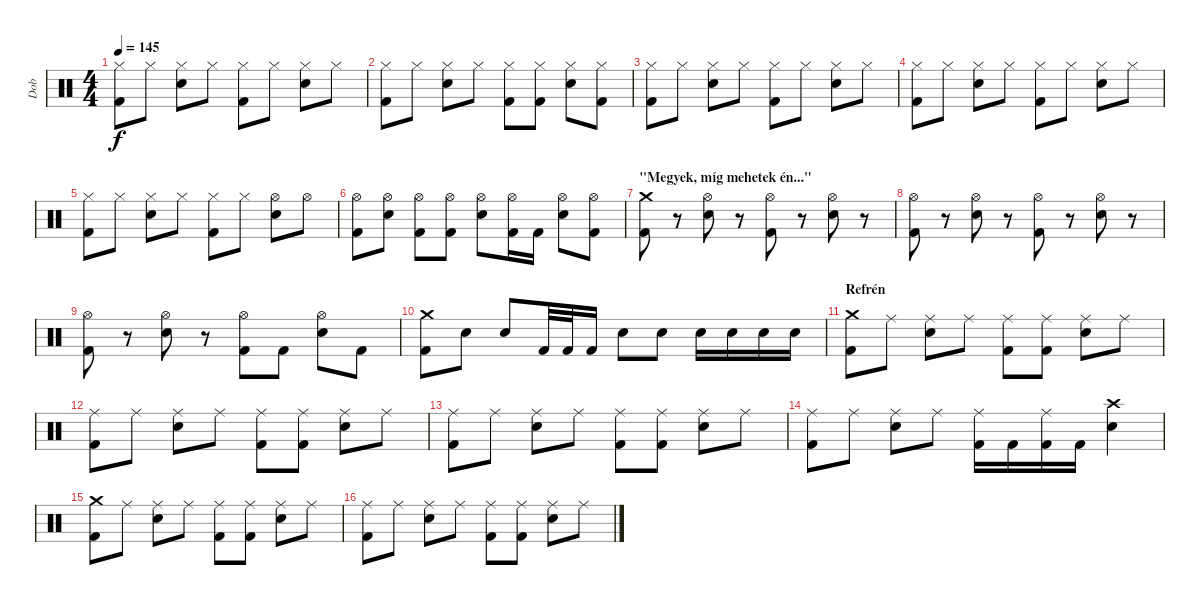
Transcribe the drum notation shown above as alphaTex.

\track ("Dob" "Dob") {instrument percussion}
\staff {score}
\articulation defaults
\ts (4 4)
\tempo 145
\clef neutral
\ks c
("Hi-Hat (closed)" "Kick (hit) 2").8{dy f} "Hi-Hat (closed)".8 ("Hi-Hat (closed)" "Electric Snare (hit)").8 "Hi-Hat (closed)".8 ("Hi-Hat (closed)" "Kick (hit) 2").8 "Hi-Hat (closed)".8 ("Hi-Hat (closed)" "Electric Snare (hit)").8 "Hi-Hat (closed)".8 |
("Hi-Hat (closed)" "Kick (hit) 2").8 "Hi-Hat (closed)".8 ("Hi-Hat (closed)" "Electric Snare (hit)").8 "Hi-Hat (closed)".8 ("Hi-Hat (closed)" "Kick (hit) 2").8 ("Hi-Hat (closed)" "Kick (hit) 2").8 ("Hi-Hat (closed)" "Electric Snare (hit)").8 ("Hi-Hat (closed)" "Kick (hit) 2").8 |
("Hi-Hat (closed)" "Kick (hit) 2").8 "Hi-Hat (closed)".8 ("Hi-Hat (closed)" "Electric Snare (hit)").8 "Hi-Hat (closed)".8 ("Hi-Hat (closed)" "Kick (hit) 2").8 "Hi-Hat (closed)".8 ("Hi-Hat (closed)" "Electric Snare (hit)").8 "Hi-Hat (closed)".8 |
("Hi-Hat (closed)" "Kick (hit) 2").8 "Hi-Hat (closed)".8 ("Hi-Hat (closed)" "Electric Snare (hit)").8 "Hi-Hat (closed)".8 ("Hi-Hat (closed)" "Kick (hit) 2").8 "Hi-Hat (closed)".8 ("Hi-Hat (closed)" "Electric Snare (hit)").8 "Hi-Hat (closed)".8 |
("Hi-Hat (closed)" "Kick (hit) 2").8 "Hi-Hat (closed)".8 ("Hi-Hat (closed)" "Electric Snare (hit)").8 "Hi-Hat (closed)".8 ("Hi-Hat (closed)" "Kick (hit) 2").8 "Hi-Hat (closed)".8 ("Hi-Hat (open)" "Electric Snare (hit)").8 "Hi-Hat (open)".8 |
("Hi-Hat (open)" "Kick (hit) 2").8 ("Hi-Hat (open)" "Electric Snare (hit)").8 ("Hi-Hat (open)" "Kick (hit) 2").8 ("Hi-Hat (open)" "Kick (hit) 2").8 ("Hi-Hat (open)" "Electric Snare (hit)").8 ("Hi-Hat (open)" "Kick (hit) 2").16 "Kick (hit) 2".16 ("Hi-Hat (open)" "Electric Snare (hit)").8 ("Hi-Hat (open)" "Kick (hit) 2").8 |
\section ("" "\"Megyek, míg mehetek én...\" ")
("Crash medium (hit)" "Kick (hit) 2").8 r.8 ("Hi-Hat (open)" "Electric Snare (hit)").8 r.8 ("Hi-Hat (open)" "Kick (hit) 2").8 r.8 ("Hi-Hat (open)" "Electric Snare (hit)").8 r.8 |
("Hi-Hat (open)" "Kick (hit) 2").8 r.8 ("Hi-Hat (open)" "Electric Snare (hit)").8 r.8 ("Hi-Hat (open)" "Kick (hit) 2").8 r.8 ("Hi-Hat (open)" "Electric Snare (hit)").8 r.8 |
("Hi-Hat (open)" "Kick (hit) 2").8 r.8 ("Hi-Hat (open)" "Electric Snare (hit)").8 r.8 ("Hi-Hat (open)" "Kick (hit) 2").8 "Kick (hit) 2".8 ("Hi-Hat (open)" "Electric Snare (hit)").8 "Kick (hit) 2".8 |
("Crash medium (hit)" "Kick (hit) 2").8 "Electric Snare (hit)".8 "Electric Snare (hit)".8 "Kick (hit) 2".32 "Kick (hit) 2".32 "Kick (hit) 2".16 "Electric Snare (hit)".8 "Electric Snare (hit)".8 "Electric Snare (hit)".16 "Electric Snare (hit)".16 "Electric Snare (hit)".16 "Electric Snare (hit)".16 |
\section ("" "Refrén")
("Crash medium (hit)" "Kick (hit) 2").8 "Ride (middle)".8 ("Ride (middle)" "Electric Snare (hit)").8 "Ride (middle)".8 ("Ride (middle)" "Kick (hit) 2").8 ("Ride (middle)" "Kick (hit) 2").8 ("Ride (middle)" "Electric Snare (hit)").8 "Ride (middle)".8 |
("Ride (middle)" "Kick (hit) 2").8 "Ride (middle)".8 ("Ride (middle)" "Electric Snare (hit)").8 "Ride (middle)".8 ("Ride (middle)" "Kick (hit) 2").8 ("Ride (middle)" "Kick (hit) 2").8 ("Ride (middle)" "Electric Snare (hit)").8 "Ride (middle)".8 |
("Ride (middle)" "Kick (hit) 2").8 "Ride (middle)".8 ("Ride (middle)" "Electric Snare (hit)").8 "Ride (middle)".8 ("Ride (middle)" "Kick (hit) 2").8 ("Ride (middle)" "Kick (hit) 2").8 ("Ride (middle)" "Electric Snare (hit)").8 "Ride (middle)".8 |
("Ride (middle)" "Kick (hit) 2").8 "Ride (middle)".8 ("Ride (middle)" "Electric Snare (hit)").8 "Ride (middle)".8 ("Ride (middle)" "Kick (hit) 2").16 "Kick (hit) 2".16 ("Ride (middle)" "Kick (hit) 2").16 "Kick (hit) 2".16 ("Crash high (hit)" "Electric Snare (hit)").4 |
("Crash medium (hit)" "Kick (hit) 2").8 "Ride (middle)".8 ("Ride (middle)" "Electric Snare (hit)").8 "Ride (middle)".8 ("Ride (middle)" "Kick (hit) 2").8 ("Ride (middle)" "Kick (hit) 2").8 ("Ride (middle)" "Electric Snare (hit)").8 "Ride (middle)".8 |
("Ride (middle)" "Kick (hit) 2").8 "Ride (middle)".8 ("Ride (middle)" "Electric Snare (hit)").8 "Ride (middle)".8 ("Ride (middle)" "Kick (hit) 2").8 ("Ride (middle)" "Kick (hit) 2").8 ("Ride (middle)" "Electric Snare (hit)").8 "Ride (middle)".8
